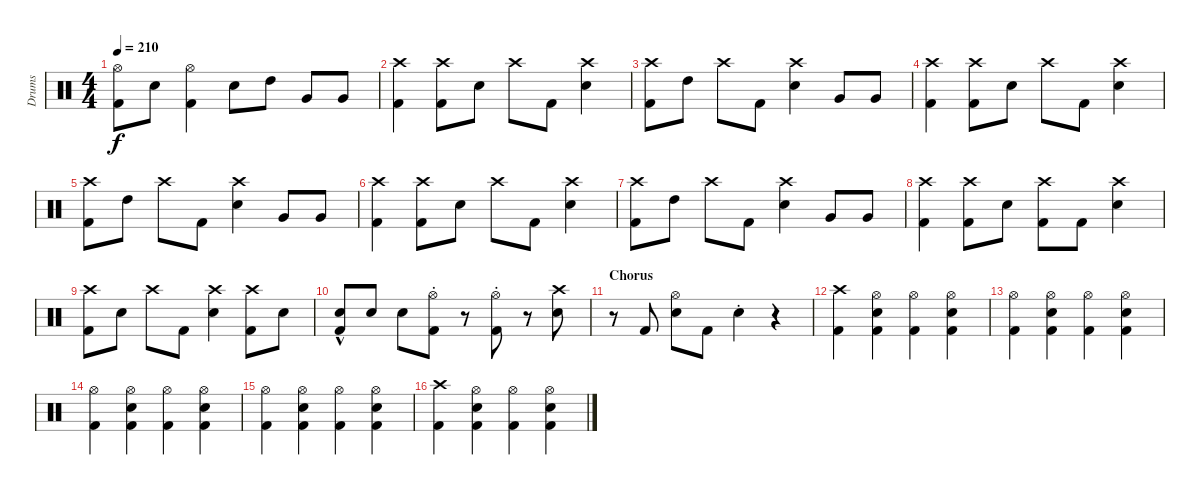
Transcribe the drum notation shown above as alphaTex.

\track ("Drums" "Drums") {instrument percussion}
\staff {score}
\articulation defaults
\ts (4 4)
\tempo 210
\clef neutral
\ks c
("Hi-Hat (open)" "Kick (hit) 2").8{dy f} "Snare (hit) 2".8 ("Hi-Hat (open)" "Kick (hit) 2").4 "Snare (hit) 2".8 "High Tom (hit)".8 "Very Low Tom (hit)".8 "Very Low Tom (hit)".8 |
("Crash high (hit)" "Kick (hit) 2").4 ("Crash high (hit)" "Kick (hit) 2").8 "Snare (hit) 2".8 "Crash high (hit)".8 "Kick (hit) 2".8 ("Crash high (hit)" "Snare (hit) 2").4 |
("Crash high (hit)" "Kick (hit) 2").8 "High Tom (hit)".8 "Crash high (hit)".8 "Kick (hit) 2".8 ("Crash high (hit)" "Snare (hit) 2").4 "Very Low Tom (hit)".8 "Very Low Tom (hit)".8 |
("Crash high (hit)" "Kick (hit) 2").4 ("Crash high (hit)" "Kick (hit) 2").8 "Snare (hit) 2".8 "Crash high (hit)".8 "Kick (hit) 2".8 ("Crash high (hit)" "Snare (hit) 2").4 |
("Crash high (hit)" "Kick (hit) 2").8 "High Tom (hit)".8 "Crash high (hit)".8 "Kick (hit) 2".8 ("Crash high (hit)" "Snare (hit) 2").4 "Very Low Tom (hit)".8 "Very Low Tom (hit)".8 |
("Crash high (hit)" "Kick (hit) 2").4 ("Crash high (hit)" "Kick (hit) 2").8 "Snare (hit) 2".8 "Crash high (hit)".8 "Kick (hit) 2".8 ("Crash high (hit)" "Snare (hit) 2").4 |
("Crash high (hit)" "Kick (hit) 2").8 "High Tom (hit)".8 "Crash high (hit)".8 "Kick (hit) 2".8 ("Crash high (hit)" "Snare (hit) 2").4 "Very Low Tom (hit)".8 "Very Low Tom (hit)".8 |
("Crash high (hit)" "Kick (hit) 2").4 ("Crash high (hit)" "Kick (hit) 2").8 "Snare (hit) 2".8 ("Crash high (hit)" "Kick (hit) 2").8 "Kick (hit) 2".8 ("Crash high (hit)" "Snare (hit) 2").4 |
("Crash high (hit)" "Kick (hit) 2").8 "Snare (hit) 2".8 "Crash high (hit)".8 "Kick (hit) 2".8 ("Crash high (hit)" "Snare (hit) 2").4 ("Crash high (hit)" "Kick (hit) 2").8 "Snare (hit) 2".8 |
("Snare (hit) 2"{hac} "Kick (hit) 2").8 "Snare (hit) 2".8 "Snare (hit) 2".8 ("Hi-Hat (open)"{st} "Kick (hit) 2"{st}).8 r.8 ("Hi-Hat (open)"{st} "Kick (hit) 2"{st}).8 r.8 ("Crash high (hit)" "Snare (hit) 2").8 |
\section ("" "Chorus")
r.8 "Kick (hit) 2".8 ("Hi-Hat (open)" "Snare (hit) 2").8 "Kick (hit) 2".8 "Snare (hit) 2"{st}.4 r.4 |
("Crash high (hit)" "Kick (hit) 2").4 ("Hi-Hat (open)" "Snare (hit) 2" "Kick (hit) 2").4 ("Hi-Hat (open)" "Kick (hit) 2").4 ("Hi-Hat (open)" "Snare (hit) 2" "Kick (hit) 2").4 |
("Hi-Hat (open)" "Kick (hit) 2").4 ("Hi-Hat (open)" "Snare (hit) 2" "Kick (hit) 2").4 ("Hi-Hat (open)" "Kick (hit) 2").4 ("Hi-Hat (open)" "Snare (hit) 2" "Kick (hit) 2").4 |
("Hi-Hat (open)" "Kick (hit) 2").4 ("Hi-Hat (open)" "Snare (hit) 2" "Kick (hit) 2").4 ("Hi-Hat (open)" "Kick (hit) 2").4 ("Hi-Hat (open)" "Snare (hit) 2" "Kick (hit) 2").4 |
("Hi-Hat (open)" "Kick (hit) 2").4 ("Hi-Hat (open)" "Snare (hit) 2" "Kick (hit) 2").4 ("Hi-Hat (open)" "Kick (hit) 2").4 ("Hi-Hat (open)" "Snare (hit) 2" "Kick (hit) 2").4 |
("Crash high (hit)" "Kick (hit) 2").4 ("Hi-Hat (open)" "Snare (hit) 2" "Kick (hit) 2").4 ("Hi-Hat (open)" "Kick (hit) 2").4 ("Hi-Hat (open)" "Snare (hit) 2" "Kick (hit) 2").4
